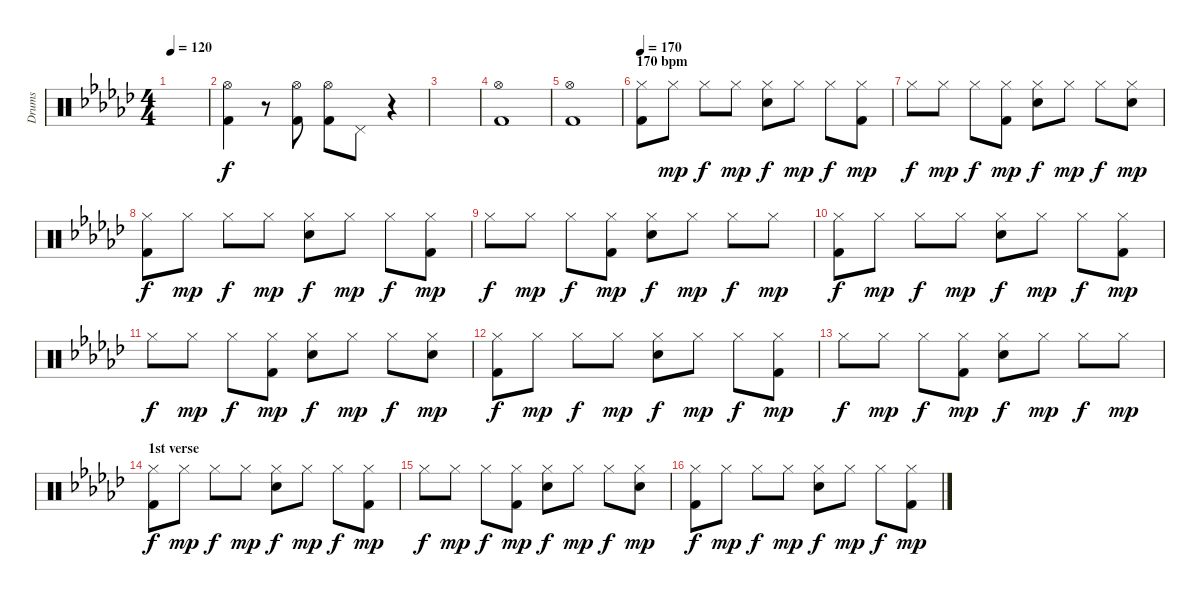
\track ("Drums" "Drums") {instrument percussion}
\staff {score}
\articulation defaults
\ts (4 4)
\tempo 120
\clef neutral
\ks ebminor
|
("Hi-Hat (open)" "Kick (hit) 2").4 r.8 ("Hi-Hat (open)" "Kick (hit) 2").8 ("Hi-Hat (open)" "Kick (hit) 2").8 "Pedal Hi-Hat (hit)".8 r.4 |
|
("Hi-Hat (open)" "Kick (hit) 2").1 |
("Hi-Hat (open)" "Kick (hit) 2").1 |
\section ("" "170 bpm")
\tempo 170
("Hi-Hat (closed)" "Kick (hit) 2").8 "Hi-Hat (closed)".8{dy mp} "Hi-Hat (closed)".8{dy f} "Hi-Hat (closed)".8{dy mp} ("Hi-Hat (closed)" "Snare (hit) 2").8{dy f} "Hi-Hat (closed)".8{dy mp} "Hi-Hat (closed)".8{dy f} ("Hi-Hat (closed)" "Kick (hit) 2").8{dy mp} |
"Hi-Hat (closed)".8{dy f} "Hi-Hat (closed)".8{dy mp} "Hi-Hat (closed)".8{dy f} ("Hi-Hat (closed)" "Kick (hit) 2").8{dy mp} ("Hi-Hat (closed)" "Snare (hit) 2").8{dy f} "Hi-Hat (closed)".8{dy mp} "Hi-Hat (closed)".8{dy f} ("Hi-Hat (closed)" "Snare (hit) 2").8{dy mp} |
("Hi-Hat (closed)" "Kick (hit) 2").8{dy f} "Hi-Hat (closed)".8{dy mp} "Hi-Hat (closed)".8{dy f} "Hi-Hat (closed)".8{dy mp} ("Hi-Hat (closed)" "Snare (hit) 2").8{dy f} "Hi-Hat (closed)".8{dy mp} "Hi-Hat (closed)".8{dy f} ("Hi-Hat (closed)" "Kick (hit) 2").8{dy mp} |
"Hi-Hat (closed)".8{dy f} "Hi-Hat (closed)".8{dy mp} "Hi-Hat (closed)".8{dy f} ("Hi-Hat (closed)" "Kick (hit) 2").8{dy mp} ("Hi-Hat (closed)" "Snare (hit) 2").8{dy f} "Hi-Hat (closed)".8{dy mp} "Hi-Hat (closed)".8{dy f} "Hi-Hat (closed)".8{dy mp} |
("Hi-Hat (closed)" "Kick (hit) 2").8{dy f} "Hi-Hat (closed)".8{dy mp} "Hi-Hat (closed)".8{dy f} "Hi-Hat (closed)".8{dy mp} ("Hi-Hat (closed)" "Snare (hit) 2").8{dy f} "Hi-Hat (closed)".8{dy mp} "Hi-Hat (closed)".8{dy f} ("Hi-Hat (closed)" "Kick (hit) 2").8{dy mp} |
"Hi-Hat (closed)".8{dy f} "Hi-Hat (closed)".8{dy mp} "Hi-Hat (closed)".8{dy f} ("Hi-Hat (closed)" "Kick (hit) 2").8{dy mp} ("Hi-Hat (closed)" "Snare (hit) 2").8{dy f} "Hi-Hat (closed)".8{dy mp} "Hi-Hat (closed)".8{dy f} ("Hi-Hat (closed)" "Snare (hit) 2").8{dy mp} |
("Hi-Hat (closed)" "Kick (hit) 2").8{dy f} "Hi-Hat (closed)".8{dy mp} "Hi-Hat (closed)".8{dy f} "Hi-Hat (closed)".8{dy mp} ("Hi-Hat (closed)" "Snare (hit) 2").8{dy f} "Hi-Hat (closed)".8{dy mp} "Hi-Hat (closed)".8{dy f} ("Hi-Hat (closed)" "Kick (hit) 2").8{dy mp} |
"Hi-Hat (closed)".8{dy f} "Hi-Hat (closed)".8{dy mp} "Hi-Hat (closed)".8{dy f} ("Hi-Hat (closed)" "Kick (hit) 2").8{dy mp} ("Hi-Hat (closed)" "Snare (hit) 2").8{dy f} "Hi-Hat (closed)".8{dy mp} "Hi-Hat (closed)".8{dy f} "Hi-Hat (closed)".8{dy mp} |
\section ("" "1st verse")
("Hi-Hat (closed)" "Kick (hit) 2").8{dy f} "Hi-Hat (closed)".8{dy mp} "Hi-Hat (closed)".8{dy f} "Hi-Hat (closed)".8{dy mp} ("Hi-Hat (closed)" "Snare (hit) 2").8{dy f} "Hi-Hat (closed)".8{dy mp} "Hi-Hat (closed)".8{dy f} ("Hi-Hat (closed)" "Kick (hit) 2").8{dy mp} |
"Hi-Hat (closed)".8{dy f} "Hi-Hat (closed)".8{dy mp} "Hi-Hat (closed)".8{dy f} ("Hi-Hat (closed)" "Kick (hit) 2").8{dy mp} ("Hi-Hat (closed)" "Snare (hit) 2").8{dy f} "Hi-Hat (closed)".8{dy mp} "Hi-Hat (closed)".8{dy f} ("Hi-Hat (closed)" "Snare (hit) 2").8{dy mp} |
("Hi-Hat (closed)" "Kick (hit) 2").8{dy f} "Hi-Hat (closed)".8{dy mp} "Hi-Hat (closed)".8{dy f} "Hi-Hat (closed)".8{dy mp} ("Hi-Hat (closed)" "Snare (hit) 2").8{dy f} "Hi-Hat (closed)".8{dy mp} "Hi-Hat (closed)".8{dy f} ("Hi-Hat (closed)" "Kick (hit) 2").8{dy mp}
